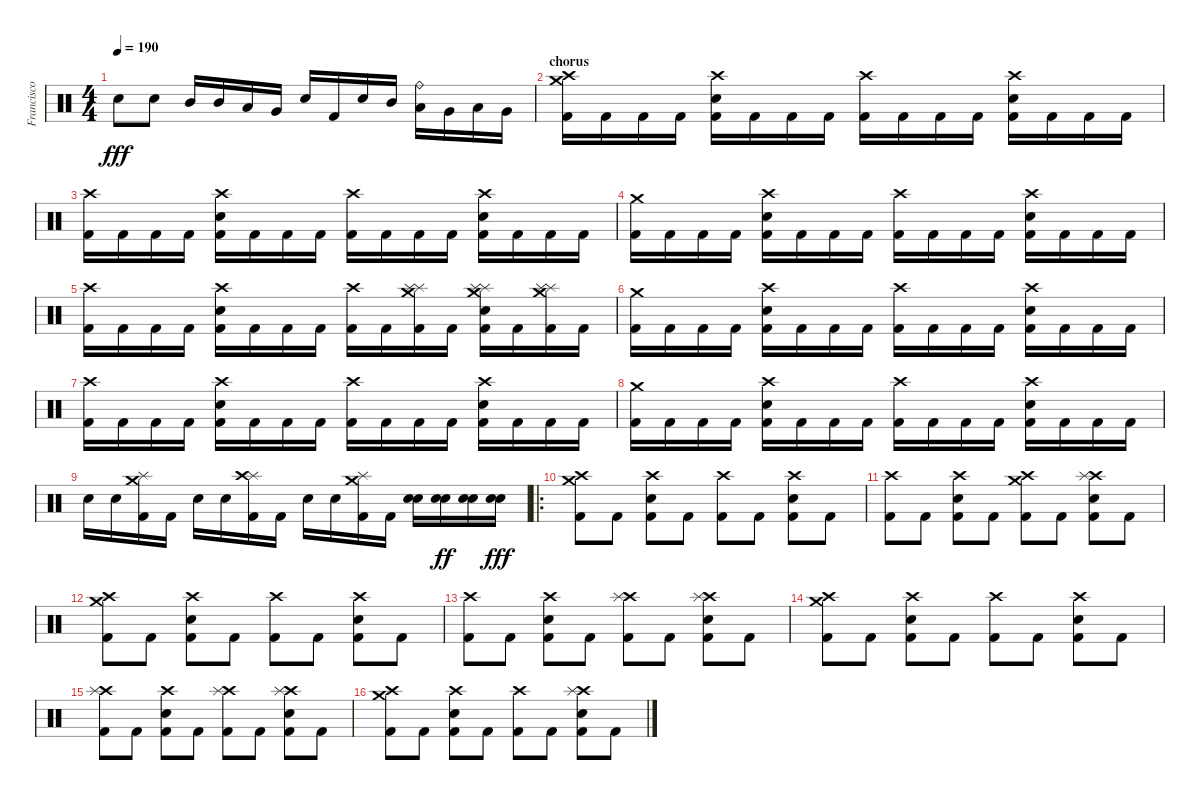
\track ("Francisco Izquierdo (Percusión)" "Francisco ") {instrument percussion}
\staff {score}
\articulation defaults
\ts (4 4)
\tempo 190
\clef neutral
\ks c "Electric Snare (hit)".8{dy fff} "Electric Snare (hit)".8 "Mid Tom (hit)".16 "Mid Tom (hit)".16 "Low Tom (hit)".16 "Very Low Tom (hit)".16 "Electric Snare (hit)".16 "Kick (hit) 2".16 "Electric Snare (hit)".16 "Mid Tom (hit)".16
("Ride (bell)" "Low Tom (hit)").16 "Very Low Tom (hit)".16 "Low Tom (hit)".16 "Very Low Tom (hit)".16 |
\section ("" "chorus")
("Crash medium (hit)" "Crash high (hit)" "Kick (hit) 2").16 "Kick (hit) 2".16 "Kick (hit) 2".16 "Kick (hit) 2".16 ("Crash high (hit)" "Electric Snare (hit)" "Kick (hit) 2").16 "Kick (hit) 2".16 "Kick (hit) 2".16 "Kick (hit) 2".16 ("Crash high (hit)" "Kick (hit) 2").16 "Kick (hit) 2".16 "Kick (hit) 2".16 "Kick (hit) 2".16 ("Crash high (hit)" "Electric Snare (hit)" "Kick (hit) 2").16 "Kick (hit) 2".16 "Kick (hit) 2".16 "Kick (hit) 2".16 |
("Crash high (hit)" "Kick (hit) 2").16 "Kick (hit) 2".16 "Kick (hit) 2".16 "Kick (hit) 2".16 ("Crash high (hit)" "Electric Snare (hit)" "Kick (hit) 2").16 "Kick (hit) 2".16 "Kick (hit) 2".16 "Kick (hit) 2".16 ("Crash high (hit)" "Kick (hit) 2").16 "Kick (hit) 2".16 "Kick (hit) 2".16 "Kick (hit) 2".16 ("Crash high (hit)" "Electric Snare (hit)" "Kick (hit) 2").16 "Kick (hit) 2".16 "Kick (hit) 2".16 "Kick (hit) 2".16 |
("Crash medium (hit)" "Kick (hit) 2").16 "Kick (hit) 2".16 "Kick (hit) 2".16 "Kick (hit) 2".16 ("Crash high (hit)" "Electric Snare (hit)" "Kick (hit) 2").16 "Kick (hit) 2".16 "Kick (hit) 2".16 "Kick (hit) 2".16 ("Crash high (hit)" "Kick (hit) 2").16 "Kick (hit) 2".16 "Kick (hit) 2".16 "Kick (hit) 2".16 ("Crash high (hit)" "Electric Snare (hit)" "Kick (hit) 2").16 "Kick (hit) 2".16 "Kick (hit) 2".16 "Kick (hit) 2".16 |
("Crash high (hit)" "Kick (hit) 2").16 "Kick (hit) 2".16 "Kick (hit) 2".16 "Kick (hit) 2".16 ("Crash high (hit)" "Electric Snare (hit)" "Kick (hit) 2").16 "Kick (hit) 2".16 "Kick (hit) 2".16 "Kick (hit) 2".16 ("Crash high (hit)" "Kick (hit) 2").16 "Kick (hit) 2".16 ("Splash (hit)" "Splash (hit)" "Crash medium (hit)" "Kick (hit) 2").16 "Kick (hit) 2".16 ("Splash (hit)" "Splash (hit)" "Crash medium (hit)" "Electric Snare (hit)" "Kick (hit) 2").16 "Kick (hit) 2".16 ("Splash (hit)" "Splash (hit)" "Crash medium (hit)" "Kick (hit) 2").16 "Kick (hit) 2".16 |
("Crash medium (hit)" "Kick (hit) 2").16 "Kick (hit) 2".16 "Kick (hit) 2".16 "Kick (hit) 2".16 ("Crash high (hit)" "Electric Snare (hit)" "Kick (hit) 2").16 "Kick (hit) 2".16 "Kick (hit) 2".16 "Kick (hit) 2".16 ("Crash high (hit)" "Kick (hit) 2").16 "Kick (hit) 2".16 "Kick (hit) 2".16 "Kick (hit) 2".16 ("Crash high (hit)" "Electric Snare (hit)" "Kick (hit) 2").16 "Kick (hit) 2".16 "Kick (hit) 2".16 "Kick (hit) 2".16 |
("Crash high (hit)" "Kick (hit) 2").16 "Kick (hit) 2".16 "Kick (hit) 2".16 "Kick (hit) 2".16 ("Crash high (hit)" "Electric Snare (hit)" "Kick (hit) 2").16 "Kick (hit) 2".16 "Kick (hit) 2".16 "Kick (hit) 2".16 ("Crash high (hit)" "Kick (hit) 2").16 "Kick (hit) 2".16 "Kick (hit) 2".16 "Kick (hit) 2".16 ("Crash high (hit)" "Electric Snare (hit)" "Kick (hit) 2").16 "Kick (hit) 2".16 "Kick (hit) 2".16 "Kick (hit) 2".16 |
("Crash medium (hit)" "Kick (hit) 2").16 "Kick (hit) 2".16 "Kick (hit) 2".16 "Kick (hit) 2".16 ("Crash high (hit)" "Electric Snare (hit)" "Kick (hit) 2").16 "Kick (hit) 2".16 "Kick (hit) 2".16 "Kick (hit) 2".16 ("Crash high (hit)" "Kick (hit) 2").16 "Kick (hit) 2".16 "Kick (hit) 2".16 "Kick (hit) 2".16 ("Crash high (hit)" "Electric Snare (hit)" "Kick (hit) 2").16 "Kick (hit) 2".16 "Kick (hit) 2".16 "Kick (hit) 2".16 |
"Electric Snare (hit)".16 "Electric Snare (hit)".16 ("Splash (hit)" "Crash medium (hit)" "Kick (hit) 2").16 "Kick (hit) 2".16 "Electric Snare (hit)".16 "Electric Snare (hit)".16 ("Splash (hit)" "Crash high (hit)" "Kick (hit) 2").16 "Kick (hit) 2".16 "Electric Snare (hit)".16 "Electric Snare (hit)".16 ("Splash (hit)" "Crash medium (hit)" "Kick (hit) 2").16 "Kick (hit) 2".16 ("Electric Snare (hit)" "Electric Snare (hit)").16 ("Electric Snare (hit)" "Electric Snare (hit)").16{dy ff} ("Electric Snare (hit)" "Electric Snare (hit)").16 ("Electric Snare (hit)" "Electric Snare (hit)").16{dy fff} |
\ro
("Crash high (hit)" "Crash medium (hit)" "Kick (hit) 2").8 "Kick (hit) 2".8 ("Crash high (hit)" "Electric Snare (hit)" "Kick (hit) 2").8 "Kick (hit) 2".8 ("Crash high (hit)" "Kick (hit) 2").8 "Kick (hit) 2".8 ("Crash high (hit)" "Electric Snare (hit)" "Kick (hit) 2").8 "Kick (hit) 2".8 |
("Crash high (hit)" "Kick (hit) 2").8 "Kick (hit) 2".8 ("Crash high (hit)" "Electric Snare (hit)" "Kick (hit) 2").8 "Kick (hit) 2".8 ("Crash high (hit)" "Crash medium (hit)" "Kick (hit) 2").8 "Kick (hit) 2".8 ("Crash high (hit)" "Splash (hit)" "Electric Snare (hit)" "Kick (hit) 2").8 "Kick (hit) 2".8 |
("Crash high (hit)" "Crash medium (hit)" "Kick (hit) 2").8 "Kick (hit) 2".8 ("Crash high (hit)" "Electric Snare (hit)" "Kick (hit) 2").8 "Kick (hit) 2".8 ("Crash high (hit)" "Kick (hit) 2").8 "Kick (hit) 2".8 ("Crash high (hit)" "Electric Snare (hit)" "Kick (hit) 2").8 "Kick (hit) 2".8 |
("Crash high (hit)" "Kick (hit) 2").8 "Kick (hit) 2".8 ("Crash high (hit)" "Electric Snare (hit)" "Kick (hit) 2").8 "Kick (hit) 2".8 ("Crash high (hit)" "Splash (hit)" "Kick (hit) 2").8 "Kick (hit) 2".8 ("Crash high (hit)" "Splash (hit)" "Electric Snare (hit)" "Kick (hit) 2").8 "Kick (hit) 2".8 |
("Crash high (hit)" "Crash medium (hit)" "Kick (hit) 2").8 "Kick (hit) 2".8 ("Crash high (hit)" "Electric Snare (hit)" "Kick (hit) 2").8 "Kick (hit) 2".8 ("Crash high (hit)" "Kick (hit) 2").8 "Kick (hit) 2".8 ("Crash high (hit)" "Electric Snare (hit)" "Kick (hit) 2").8 "Kick (hit) 2".8 |
("Crash high (hit)" "Splash (hit)" "Kick (hit) 2").8 "Kick (hit) 2".8 ("Crash high (hit)" "Electric Snare (hit)" "Kick (hit) 2").8 "Kick (hit) 2".8 ("Crash high (hit)" "Splash (hit)" "Kick (hit) 2").8 "Kick (hit) 2".8 ("Crash high (hit)" "Splash (hit)" "Electric Snare (hit)" "Kick (hit) 2").8 "Kick (hit) 2".8 |
("Crash high (hit)" "Crash medium (hit)" "Kick (hit) 2").8 "Kick (hit) 2".8 ("Crash high (hit)" "Electric Snare (hit)" "Kick (hit) 2").8 "Kick (hit) 2".8 ("Crash high (hit)" "Kick (hit) 2").8 "Kick (hit) 2".8 ("Crash high (hit)" "Splash (hit)" "Electric Snare (hit)" "Kick (hit) 2").8 "Kick (hit) 2".8
